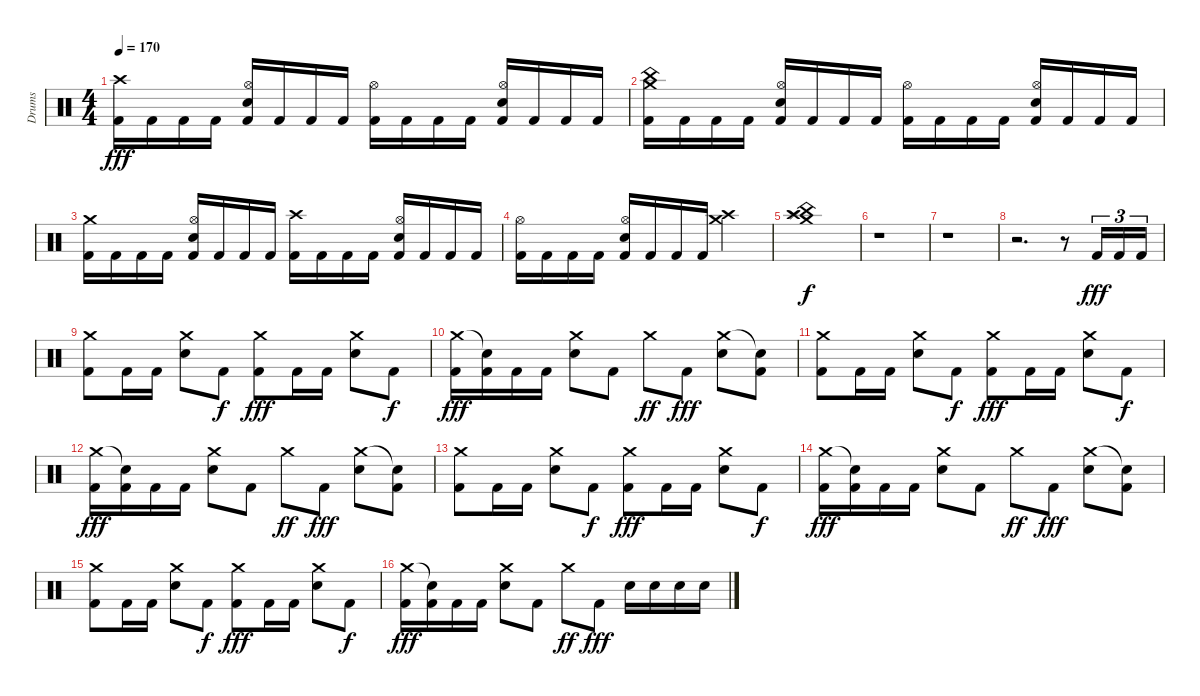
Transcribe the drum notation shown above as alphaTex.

\track ("Drums" "Drums") {instrument percussion}
\staff {score}
\articulation defaults
\ts (4 4)
\tempo 170
\clef neutral
\ks c
("Crash high (hit)" "Kick (hit) 2").16{dy fff} "Kick (hit) 2".16 "Kick (hit) 2".16 "Kick (hit) 2".16 ("Hi-Hat (open)" "Snare (hit) 2" "Kick (hit) 2").16 "Kick (hit) 2".16 "Kick (hit) 2".16 "Kick (hit) 2".16 ("Hi-Hat (open)" "Kick (hit) 2").16 "Kick (hit) 2".16 "Kick (hit) 2".16 "Kick (hit) 2".16 ("Hi-Hat (open)" "Snare (hit) 2" "Kick (hit) 2").16 "Kick (hit) 2".16 "Kick (hit) 2".16 "Kick (hit) 2".16 |
("China (hit)" "Crash medium (hit)" "Kick (hit) 2").16 "Kick (hit) 2".16 "Kick (hit) 2".16 "Kick (hit) 2".16 ("Hi-Hat (open)" "Snare (hit) 2" "Kick (hit) 2").16 "Kick (hit) 2".16 "Kick (hit) 2".16 "Kick (hit) 2".16 ("Hi-Hat (open)" "Kick (hit) 2").16 "Kick (hit) 2".16 "Kick (hit) 2".16 "Kick (hit) 2".16 ("Hi-Hat (open)" "Snare (hit) 2" "Kick (hit) 2").16 "Kick (hit) 2".16 "Kick (hit) 2".16 "Kick (hit) 2".16 |
("Crash medium (hit)" "Kick (hit) 2").16 "Kick (hit) 2".16 "Kick (hit) 2".16 "Kick (hit) 2".16 ("Hi-Hat (open)" "Snare (hit) 2" "Kick (hit) 2").16 "Kick (hit) 2".16 "Kick (hit) 2".16 "Kick (hit) 2".16 ("Crash high (hit)" "Kick (hit) 2").16 "Kick (hit) 2".16 "Kick (hit) 2".16 "Kick (hit) 2".16 ("Hi-Hat (open)" "Snare (hit) 2" "Kick (hit) 2").16 "Kick (hit) 2".16 "Kick (hit) 2".16 "Kick (hit) 2".16 |
("Hi-Hat (open)" "Kick (hit) 2").16 "Kick (hit) 2".16 "Kick (hit) 2".16 "Kick (hit) 2".16 ("Hi-Hat (open)" "Snare (hit) 2" "Kick (hit) 2").16 "Kick (hit) 2".16 "Kick (hit) 2".16 "Kick (hit) 2".16 ("Crash medium (hit)" "Crash high (hit)").2 |
("China (hit)" "Crash medium (hit)" "Crash high (hit)" "Splash (hit)").1{dy f} |
r.1 |
r.1 |
r.2{d} r.8 "Kick (hit) 2".16{tu (3 2) dy fff} "Kick (hit) 2".16{tu (3 2)} "Kick (hit) 2".16{tu (3 2)} |
("Crash medium (hit)" "Kick (hit) 2").8 "Kick (hit) 2".16 "Kick (hit) 2".16 ("Crash medium (hit)" "Snare (hit) 2").8 "Kick (hit) 2".8{dy f} ("Crash medium (hit)" "Kick (hit) 2").8{dy fff} "Kick (hit) 2".16 "Kick (hit) 2".16 ("Crash medium (hit)" "Snare (hit) 2").8 "Kick (hit) 2".8{dy f} |
("Crash medium (hit)" "Kick (hit) 2").16{dy fff} ("Snare (hit)"{t} "Kick (hit) 2").16 "Kick (hit) 2".16 "Kick (hit) 2".16 ("Crash medium (hit)" "Snare (hit) 2").8 "Kick (hit) 2".8 "Crash medium (hit)".8{dy ff} "Kick (hit) 2".8{dy fff} ("Crash medium (hit)" "Snare (hit) 2").8 ("Snare (hit)"{t} "Kick (hit) 2").8 |
("Crash medium (hit)" "Kick (hit) 2").8 "Kick (hit) 2".16 "Kick (hit) 2".16 ("Crash medium (hit)" "Snare (hit) 2").8 "Kick (hit) 2".8{dy f} ("Crash medium (hit)" "Kick (hit) 2").8{dy fff} "Kick (hit) 2".16 "Kick (hit) 2".16 ("Crash medium (hit)" "Snare (hit) 2").8 "Kick (hit) 2".8{dy f} |
("Crash medium (hit)" "Kick (hit) 2").16{dy fff} ("Snare (hit)"{t} "Kick (hit) 2").16 "Kick (hit) 2".16 "Kick (hit) 2".16 ("Crash medium (hit)" "Snare (hit) 2").8 "Kick (hit) 2".8 "Crash medium (hit)".8{dy ff} "Kick (hit) 2".8{dy fff} ("Crash medium (hit)" "Snare (hit) 2").8 ("Snare (hit)"{t} "Kick (hit) 2").8 |
("Crash medium (hit)" "Kick (hit) 2").8 "Kick (hit) 2".16 "Kick (hit) 2".16 ("Crash medium (hit)" "Snare (hit) 2").8 "Kick (hit) 2".8{dy f} ("Crash medium (hit)" "Kick (hit) 2").8{dy fff} "Kick (hit) 2".16 "Kick (hit) 2".16 ("Crash medium (hit)" "Snare (hit) 2").8 "Kick (hit) 2".8{dy f} |
("Crash medium (hit)" "Kick (hit) 2").16{dy fff} ("Snare (hit)"{t} "Kick (hit) 2").16 "Kick (hit) 2".16 "Kick (hit) 2".16 ("Crash medium (hit)" "Snare (hit) 2").8 "Kick (hit) 2".8 "Crash medium (hit)".8{dy ff} "Kick (hit) 2".8{dy fff} ("Crash medium (hit)" "Snare (hit) 2").8 ("Snare (hit)"{t} "Kick (hit) 2").8 |
("Crash medium (hit)" "Kick (hit) 2").8 "Kick (hit) 2".16 "Kick (hit) 2".16 ("Crash medium (hit)" "Snare (hit) 2").8 "Kick (hit) 2".8{dy f} ("Crash medium (hit)" "Kick (hit) 2").8{dy fff} "Kick (hit) 2".16 "Kick (hit) 2".16 ("Crash medium (hit)" "Snare (hit) 2").8 "Kick (hit) 2".8{dy f} |
("Crash medium (hit)" "Kick (hit) 2").16{dy fff} ("Snare (hit)"{t} "Kick (hit) 2").16 "Kick (hit) 2".16 "Kick (hit) 2".16 ("Crash medium (hit)" "Snare (hit) 2").8 "Kick (hit) 2".8 "Crash medium (hit)".8{dy ff} "Kick (hit) 2".8{dy fff} "Snare (hit) 2".16 "Snare (hit) 2".16 "Snare (hit) 2".16 "Snare (hit) 2".16
